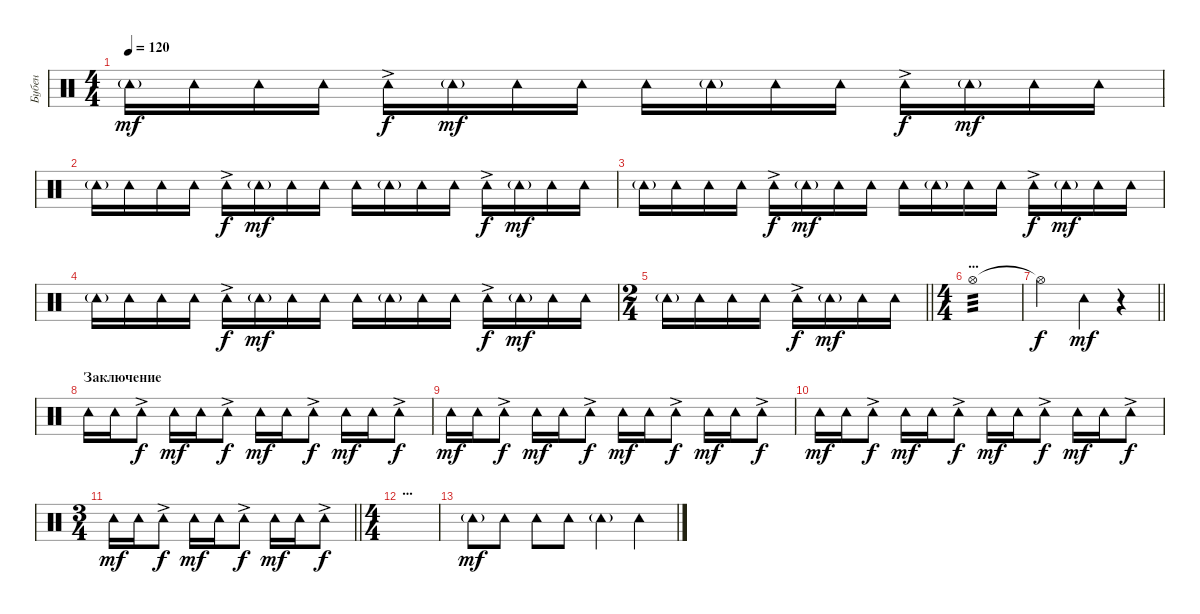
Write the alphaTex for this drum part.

\track ("Бубен" "Бубен") {instrument percussion}
\staff {score}
\articulation defaults
\ts (4 4)
\tempo 120
\clef neutral
\ks c "Tambourine (hit)"{g}.16{dy mf} "Tambourine (hit)".16 "Tambourine (hit)".16 "Tambourine (hit)".16 "Tambourine (hit)"{ac}.16{dy f} "Tambourine (hit)"{g}.16{dy mf} "Tambourine (hit)".16 "Tambourine (hit)".16 "Tambourine (hit)".16 "Tambourine (hit)"{g}.16 "Tambourine (hit)".16 "Tambourine (hit)".16 "Tambourine (hit)"{ac}.16{dy f} "Tambourine (hit)"{g}.16{dy mf} "Tambourine (hit)".16 "Tambourine (hit)".16
|
"Tambourine (hit)"{g}.16 "Tambourine (hit)".16 "Tambourine (hit)".16 "Tambourine (hit)".16 "Tambourine (hit)"{ac}.16{dy f} "Tambourine (hit)"{g}.16{dy mf} "Tambourine (hit)".16 "Tambourine (hit)".16 "Tambourine (hit)".16 "Tambourine (hit)"{g}.16 "Tambourine (hit)".16 "Tambourine (hit)".16 "Tambourine (hit)"{ac}.16{dy f} "Tambourine (hit)"{g}.16{dy mf} "Tambourine (hit)".16 "Tambourine (hit)".16 |
"Tambourine (hit)"{g}.16 "Tambourine (hit)".16 "Tambourine (hit)".16 "Tambourine (hit)".16 "Tambourine (hit)"{ac}.16{dy f} "Tambourine (hit)"{g}.16{dy mf} "Tambourine (hit)".16 "Tambourine (hit)".16 "Tambourine (hit)".16 "Tambourine (hit)"{g}.16 "Tambourine (hit)".16 "Tambourine (hit)".16 "Tambourine (hit)"{ac}.16{dy f} "Tambourine (hit)"{g}.16{dy mf} "Tambourine (hit)".16 "Tambourine (hit)".16 |
"Tambourine (hit)"{g}.16 "Tambourine (hit)".16 "Tambourine (hit)".16 "Tambourine (hit)".16 "Tambourine (hit)"{ac}.16{dy f} "Tambourine (hit)"{g}.16{dy mf} "Tambourine (hit)".16 "Tambourine (hit)".16 "Tambourine (hit)".16 "Tambourine (hit)"{g}.16 "Tambourine (hit)".16 "Tambourine (hit)".16 "Tambourine (hit)"{ac}.16{dy f} "Tambourine (hit)"{g}.16{dy mf} "Tambourine (hit)".16 "Tambourine (hit)".16 |
\ts (2 4)
\barLineRight lightlight "Tambourine (hit)"{g}.16 "Tambourine (hit)".16 "Tambourine (hit)".16 "Tambourine (hit)".16 "Tambourine (hit)"{ac}.16{dy f} "Tambourine (hit)"{g}.16{dy mf} "Tambourine (hit)".16 "Tambourine (hit)".16
|
\ts (4 4)
\section ("" "...")
"Hi-Hat (open)".1{tp 3} |
\barLineRight lightlight "Hi-Hat (open)"{t}.2{dy f} "Tambourine (hit)".4{dy mf}
r.4 |
\section ("" "Заключение")
"Tambourine (hit)".16 "Tambourine (hit)".16 "Tambourine (hit)"{ac}.8{dy f} "Tambourine (hit)".16{dy mf} "Tambourine (hit)".16 "Tambourine (hit)"{ac}.8{dy f} "Tambourine (hit)".16{dy mf} "Tambourine (hit)".16 "Tambourine (hit)"{ac}.8{dy f} "Tambourine (hit)".16{dy mf} "Tambourine (hit)".16 "Tambourine (hit)"{ac}.8{dy f} |
"Tambourine (hit)".16{dy mf} "Tambourine (hit)".16 "Tambourine (hit)"{ac}.8{dy f} "Tambourine (hit)".16{dy mf} "Tambourine (hit)".16 "Tambourine (hit)"{ac}.8{dy f} "Tambourine (hit)".16{dy mf} "Tambourine (hit)".16 "Tambourine (hit)"{ac}.8{dy f} "Tambourine (hit)".16{dy mf} "Tambourine (hit)".16 "Tambourine (hit)"{ac}.8{dy f} |
"Tambourine (hit)".16{dy mf} "Tambourine (hit)".16 "Tambourine (hit)"{ac}.8{dy f} "Tambourine (hit)".16{dy mf} "Tambourine (hit)".16 "Tambourine (hit)"{ac}.8{dy f} "Tambourine (hit)".16{dy mf} "Tambourine (hit)".16 "Tambourine (hit)"{ac}.8{dy f} "Tambourine (hit)".16{dy mf} "Tambourine (hit)".16 "Tambourine (hit)"{ac}.8{dy f} |
\ts (3 4)
\barLineRight lightlight "Tambourine (hit)".16{dy mf} "Tambourine (hit)".16 "Tambourine (hit)"{ac}.8{dy f} "Tambourine (hit)".16{dy mf} "Tambourine (hit)".16 "Tambourine (hit)"{ac}.8{dy f} "Tambourine (hit)".16{dy mf} "Tambourine (hit)".16 "Tambourine (hit)"{ac}.8{dy f}
|
\ts (4 4)
\section ("" "...")
|
"Tambourine (hit)"{g}.8{dy mf} "Tambourine (hit)".8 "Tambourine (hit)".8 "Tambourine (hit)".8 "Tambourine (hit)"{g}.4 "Tambourine (hit)".4
